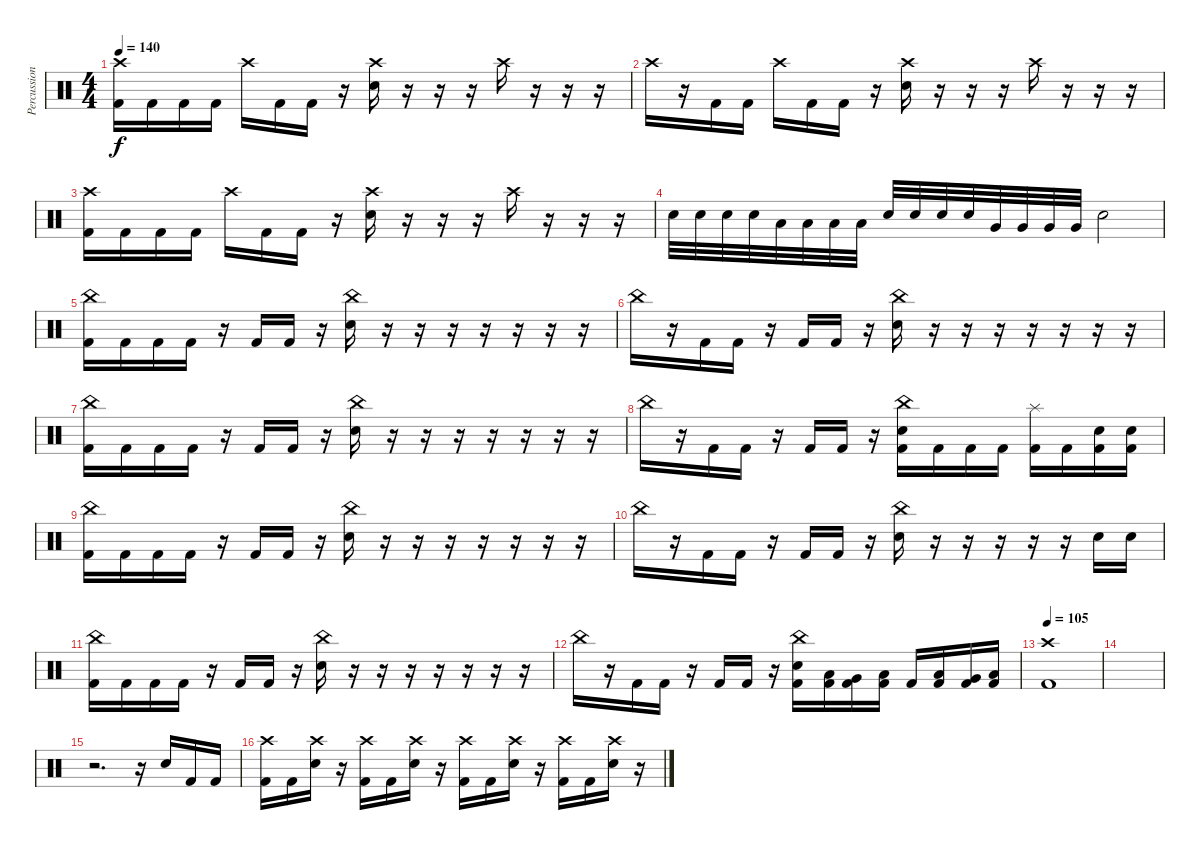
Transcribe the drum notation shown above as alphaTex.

\track ("Percussion" "Percussion") {instrument percussion}
\staff {score}
\articulation defaults
\ts (4 4)
\tempo 140
\clef neutral
\ks c
("Crash high (hit)" "Kick (hit) 2").16{dy f} "Kick (hit) 2".16 "Kick (hit) 2".16 "Kick (hit) 2".16 "Crash high (hit)".16 "Kick (hit) 2".16 "Kick (hit) 2".16 r.16 ("Crash high (hit)" "Electric Snare (hit)").16 r.16 r.16 r.16 "Crash high (hit)".16 r.16 r.16 r.16 |
"Crash high (hit)".16 r.16 "Kick (hit) 2".16 "Kick (hit) 2".16 "Crash high (hit)".16 "Kick (hit) 2".16 "Kick (hit) 2".16 r.16 ("Crash high (hit)" "Electric Snare (hit)").16 r.16 r.16 r.16 "Crash high (hit)".16 r.16 r.16 r.16 |
("Crash high (hit)" "Kick (hit) 2").16 "Kick (hit) 2".16 "Kick (hit) 2".16 "Kick (hit) 2".16 "Crash high (hit)".16 "Kick (hit) 2".16 "Kick (hit) 2".16 r.16 ("Crash high (hit)" "Electric Snare (hit)").16 r.16 r.16 r.16 "Crash high (hit)".16 r.16 r.16 r.16 |
"Electric Snare (hit)".32 "Electric Snare (hit)".32 "Electric Snare (hit)".32 "Electric Snare (hit)".32 "Low Tom (hit)".32 "Low Tom (hit)".32 "Low Tom (hit)".32 "Low Tom (hit)".32 "Electric Snare (hit)".32 "Electric Snare (hit)".32 "Electric Snare (hit)".32 "Electric Snare (hit)".32 "Very Low Tom (hit)".32 "Very Low Tom (hit)".32 "Very Low Tom (hit)".32 "Very Low Tom (hit)".32 "Electric Snare (hit)".2 |
("China (hit)" "Kick (hit) 2").16 "Kick (hit) 2".16 "Kick (hit) 2".16 "Kick (hit) 2".16 r.16 "Kick (hit) 2".16 "Kick (hit) 2".16 r.16 ("China (hit)" "Electric Snare (hit)").16 r.16 r.16 r.16 r.16 r.16 r.16 r.16 |
"China (hit)".16 r.16 "Kick (hit) 2".16 "Kick (hit) 2".16 r.16 "Kick (hit) 2".16 "Kick (hit) 2".16 r.16 ("China (hit)" "Electric Snare (hit)").16 r.16 r.16 r.16 r.16 r.16 r.16 r.16 |
("China (hit)" "Kick (hit) 2").16 "Kick (hit) 2".16 "Kick (hit) 2".16 "Kick (hit) 2".16 r.16 "Kick (hit) 2".16 "Kick (hit) 2".16 r.16 ("China (hit)" "Electric Snare (hit)").16 r.16 r.16 r.16 r.16 r.16 r.16 r.16 |
"China (hit)".16 r.16 "Kick (hit) 2".16 "Kick (hit) 2".16 r.16 "Kick (hit) 2".16 "Kick (hit) 2".16 r.16 ("China (hit)" "Electric Snare (hit)" "Kick (hit) 2").16 "Kick (hit) 2".16 "Kick (hit) 2".16 "Kick (hit) 2".16 ("Splash (hit)" "Kick (hit) 2").16 "Kick (hit) 2".16 ("Electric Snare (hit)" "Kick (hit) 2").16 ("Electric Snare (hit)" "Kick (hit) 2").16 |
("China (hit)" "Kick (hit) 2").16 "Kick (hit) 2".16 "Kick (hit) 2".16 "Kick (hit) 2".16 r.16 "Kick (hit) 2".16 "Kick (hit) 2".16 r.16 ("China (hit)" "Electric Snare (hit)").16 r.16 r.16 r.16 r.16 r.16 r.16 r.16 |
"China (hit)".16 r.16 "Kick (hit) 2".16 "Kick (hit) 2".16 r.16 "Kick (hit) 2".16 "Kick (hit) 2".16 r.16 ("China (hit)" "Electric Snare (hit)").16 r.16 r.16 r.16 r.16 r.16 "Electric Snare (hit)".16 "Electric Snare (hit)".16 |
("China (hit)" "Kick (hit) 2").16 "Kick (hit) 2".16 "Kick (hit) 2".16 "Kick (hit) 2".16 r.16 "Kick (hit) 2".16 "Kick (hit) 2".16 r.16 ("China (hit)" "Electric Snare (hit)").16 r.16 r.16 r.16 r.16 r.16 r.16 r.16 |
"China (hit)".16 r.16 "Kick (hit) 2".16 "Kick (hit) 2".16 r.16 "Kick (hit) 2".16 "Kick (hit) 2".16 r.16 ("China (hit)" "Electric Snare (hit)" "Kick (hit) 2").16 ("Low Tom (hit)" "Kick (hit) 2").16 ("Very Low Tom (hit)" "Kick (hit) 2").16 ("Low Floor Tom (hit)" "Kick (hit) 2").16 "Kick (hit) 2".16 ("Low Tom (hit)" "Kick (hit) 2").16 ("Very Low Tom (hit)" "Kick (hit) 2").16 ("Low Floor Tom (hit)" "Kick (hit) 2").16 |
\tempo 105
("Crash high (hit)" "Kick (hit) 2").1 |
|
r.2{d} r.16 "Electric Snare (hit)".16 "Kick (hit) 2".16 "Kick (hit) 2".16 |
("Crash high (hit)" "Kick (hit) 2").16 "Kick (hit) 2".16 ("Crash high (hit)" "Electric Snare (hit)").16 r.16 ("Crash high (hit)" "Kick (hit) 2").16 "Kick (hit) 2".16 ("Crash high (hit)" "Electric Snare (hit)").16 r.16 ("Crash high (hit)" "Kick (hit) 2").16 "Kick (hit) 2".16 ("Crash high (hit)" "Electric Snare (hit)").16 r.16 ("Crash high (hit)" "Kick (hit) 2").16 "Kick (hit) 2".16 ("Crash high (hit)" "Electric Snare (hit)").16 r.16
